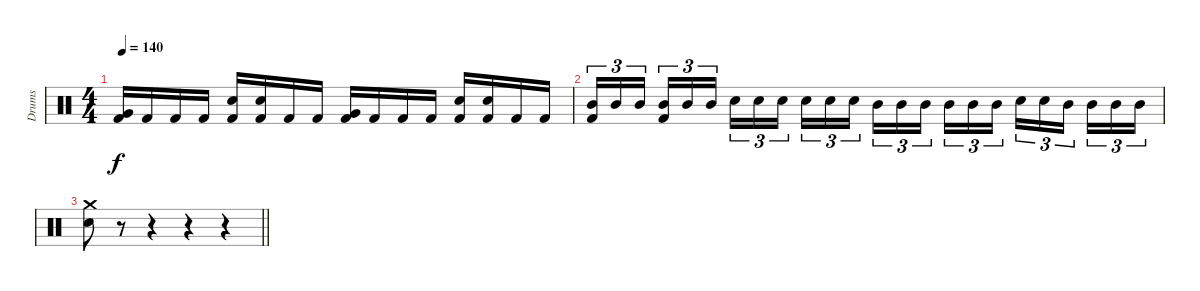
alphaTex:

\track ("Drums" "Drums") {instrument percussion}
\staff {score}
\articulation defaults
\ts (4 4)
\tempo 140
\clef neutral
\ks c
("Very Low Tom (hit)" "Kick (hit) 2").16{dy f} "Kick (hit) 2".16 "Kick (hit) 2".16 "Kick (hit) 2".16 ("Electric Snare (hit)" "Kick (hit) 2").16 ("Electric Snare (hit)" "Kick (hit) 2").16 "Kick (hit) 2".16 "Kick (hit) 2".16 ("Very Low Tom (hit)" "Kick (hit) 2").16 "Kick (hit) 2".16 "Kick (hit) 2".16 "Kick (hit) 2".16 ("Electric Snare (hit)" "Kick (hit) 2").16 ("Electric Snare (hit)" "Kick (hit) 2").16 "Kick (hit) 2".16 "Kick (hit) 2".16 |
("Mid Tom (hit)" "Kick (hit) 2").16{tu (3 2)} "Mid Tom (hit)".16{tu (3 2)} "Mid Tom (hit)".16{tu (3 2)} ("Mid Tom (hit)" "Kick (hit) 2").16{tu (3 2)} "Mid Tom (hit)".16{tu (3 2)} "Mid Tom (hit)".16{tu (3 2)} "Electric Snare (hit)".16{tu (3 2)} "Electric Snare (hit)".16{tu (3 2)} "Electric Snare (hit)".16{tu (3 2)} "Electric Snare (hit)".16{tu (3 2)} "Electric Snare (hit)".16{tu (3 2)} "Electric Snare (hit)".16{tu (3 2)} "Mid Tom (hit)".16{tu (3 2)} "Mid Tom (hit)".16{tu (3 2)} "Mid Tom (hit)".16{tu (3 2)} "Mid Tom (hit)".16{tu (3 2)} "Mid Tom (hit)".16{tu (3 2)} "Mid Tom (hit)".16{tu (3 2)} "Electric Snare (hit)".16{tu (3 2)} "Electric Snare (hit)".16{tu (3 2)} "Mid Tom (hit)".16{tu (3 2)} "Mid Tom (hit)".16{tu (3 2)} "Mid Tom (hit)".16{tu (3 2)} "Mid Tom (hit)".16{tu (3 2)} |
\barLineRight lightlight
("Crash medium (hit)" "Electric Snare (hit)").8 r.8 r.4 r.4 r.4
